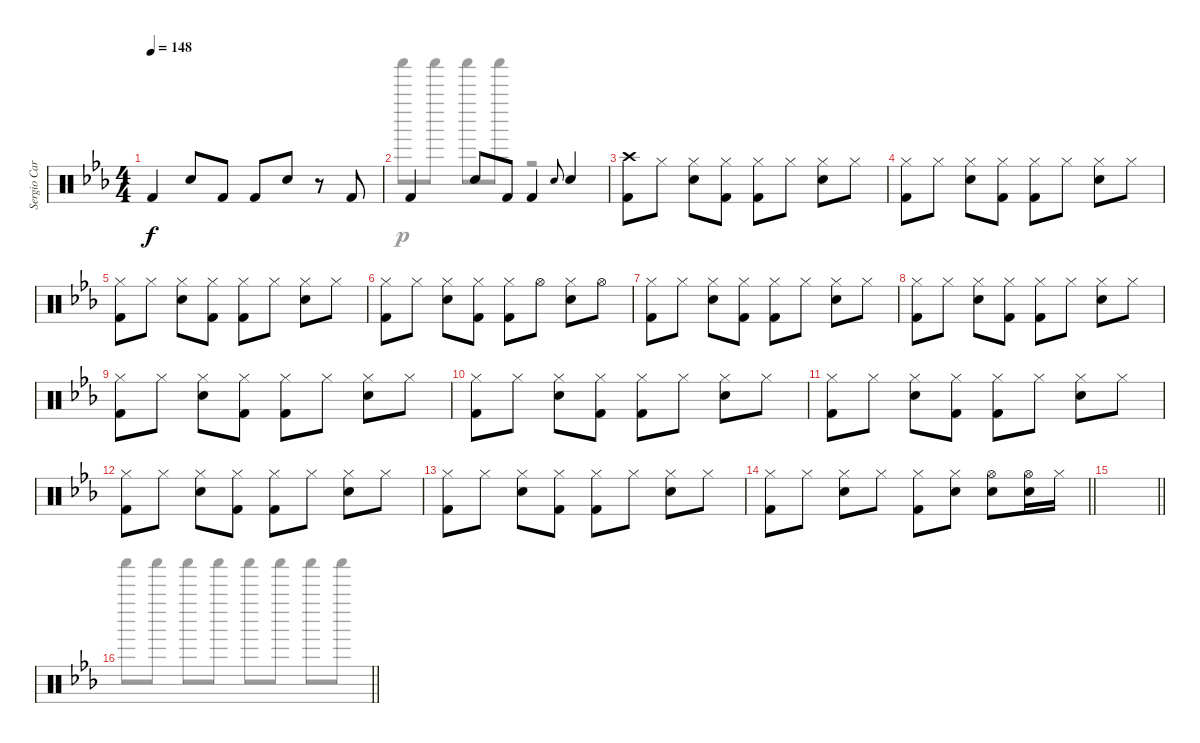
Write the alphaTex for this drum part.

\track ("Sergio Carnevale [Batteria]" "Sergio Car") {instrument percussion}
\staff {score}
\articulation defaults
\voice
\ts (4 4)
\tempo 148
\clef neutral
\ks cminor "Kick (hit) 2".4{dy f} "Snare (hit) 2".8 "Kick (hit) 2".8 "Kick (hit) 2".8 "Snare (hit) 2".8
r.8 "Kick (hit) 2".8 |
"Kick (hit) 2".4 "Snare (hit) 2".8 "Kick (hit) 2".8 "Kick (hit) 2".4 "Snare (hit) 2".8{gr onbeat} "Snare (hit) 2".4 |
("Crash high (hit)" "Kick (hit) 2").8 "Hi-Hat (closed)".8 ("Hi-Hat (closed)" "Snare (hit) 2").8 ("Hi-Hat (closed)" "Kick (hit) 2").8 ("Hi-Hat (closed)" "Kick (hit) 2").8 "Hi-Hat (closed)".8 ("Hi-Hat (closed)" "Snare (hit) 2").8 "Hi-Hat (closed)".8 |
("Hi-Hat (closed)" "Kick (hit) 2").8 "Hi-Hat (closed)".8 ("Hi-Hat (closed)" "Snare (hit) 2").8 ("Hi-Hat (closed)" "Kick (hit) 2").8 ("Hi-Hat (closed)" "Kick (hit) 2").8 "Hi-Hat (closed)".8 ("Hi-Hat (closed)" "Snare (hit) 2").8 "Hi-Hat (closed)".8 |
("Hi-Hat (closed)" "Kick (hit) 2").8 "Hi-Hat (closed)".8 ("Hi-Hat (closed)" "Snare (hit) 2").8 ("Hi-Hat (closed)" "Kick (hit) 2").8 ("Hi-Hat (closed)" "Kick (hit) 2").8 "Hi-Hat (closed)".8 ("Hi-Hat (closed)" "Snare (hit) 2").8 "Hi-Hat (closed)".8 |
("Hi-Hat (closed)" "Kick (hit) 2").8 "Hi-Hat (closed)".8 ("Hi-Hat (closed)" "Snare (hit) 2").8 ("Hi-Hat (closed)" "Kick (hit) 2").8 ("Hi-Hat (closed)" "Kick (hit) 2").8 "Hi-Hat (open)".8 ("Hi-Hat (closed)" "Snare (hit) 2").8 "Hi-Hat (open)".8 |
("Hi-Hat (closed)" "Kick (hit) 2").8 "Hi-Hat (closed)".8 ("Hi-Hat (closed)" "Snare (hit) 2").8 ("Hi-Hat (closed)" "Kick (hit) 2").8 ("Hi-Hat (closed)" "Kick (hit) 2").8 "Hi-Hat (closed)".8 ("Hi-Hat (closed)" "Snare (hit) 2").8 "Hi-Hat (closed)".8 |
("Hi-Hat (closed)" "Kick (hit) 2").8 "Hi-Hat (closed)".8 ("Hi-Hat (closed)" "Snare (hit) 2").8 ("Hi-Hat (closed)" "Kick (hit) 2").8 ("Hi-Hat (closed)" "Kick (hit) 2").8 "Hi-Hat (closed)".8 ("Hi-Hat (closed)" "Snare (hit) 2").8 "Hi-Hat (closed)".8 |
("Hi-Hat (closed)" "Kick (hit) 2").8 "Hi-Hat (closed)".8 ("Hi-Hat (closed)" "Snare (hit) 2").8 ("Hi-Hat (closed)" "Kick (hit) 2").8 ("Hi-Hat (closed)" "Kick (hit) 2").8 "Hi-Hat (closed)".8 ("Hi-Hat (closed)" "Snare (hit) 2").8 "Hi-Hat (closed)".8 |
("Hi-Hat (closed)" "Kick (hit) 2").8 "Hi-Hat (closed)".8 ("Hi-Hat (closed)" "Snare (hit) 2").8 ("Hi-Hat (closed)" "Kick (hit) 2").8 ("Hi-Hat (closed)" "Kick (hit) 2").8 "Hi-Hat (closed)".8 ("Hi-Hat (closed)" "Snare (hit) 2").8 "Hi-Hat (closed)".8 |
("Hi-Hat (closed)" "Kick (hit) 2").8 "Hi-Hat (closed)".8 ("Hi-Hat (closed)" "Snare (hit) 2").8 ("Hi-Hat (closed)" "Kick (hit) 2").8 ("Hi-Hat (closed)" "Kick (hit) 2").8 "Hi-Hat (closed)".8 ("Hi-Hat (closed)" "Snare (hit) 2").8 "Hi-Hat (closed)".8 |
("Hi-Hat (closed)" "Kick (hit) 2").8 "Hi-Hat (closed)".8 ("Hi-Hat (closed)" "Snare (hit) 2").8 ("Hi-Hat (closed)" "Kick (hit) 2").8 ("Hi-Hat (closed)" "Kick (hit) 2").8 "Hi-Hat (closed)".8 ("Hi-Hat (closed)" "Snare (hit) 2").8 "Hi-Hat (closed)".8 |
("Hi-Hat (closed)" "Kick (hit) 2").8 "Hi-Hat (closed)".8 ("Hi-Hat (closed)" "Snare (hit) 2").8 ("Hi-Hat (closed)" "Kick (hit) 2").8 ("Hi-Hat (closed)" "Kick (hit) 2").8 "Hi-Hat (closed)".8 ("Hi-Hat (closed)" "Snare (hit) 2").8 "Hi-Hat (closed)".8 |
\barLineRight lightlight
("Hi-Hat (closed)" "Kick (hit) 2").8 "Hi-Hat (closed)".8 ("Hi-Hat (closed)" "Snare (hit) 2").8 "Hi-Hat (closed)".8 ("Hi-Hat (closed)" "Kick (hit) 2").8 ("Hi-Hat (closed)" "Snare (hit) 2").8 ("Hi-Hat (open)" "Snare (hit) 2").8 ("Hi-Hat (open)" "Snare (hit) 2").16 "Hi-Hat (closed)".16 |
\barLineRight lightlight
|
\barLineRight lightlight
\voice
\clef neutral
\ottava regular
\simile none
\ks cminor "Shaker (hit)".8{dy p} "Shaker (hit)".8 "Shaker (hit)".8 "Shaker (hit)".8 "Shaker (hit)".8 "Shaker (hit)".8 "Shaker (hit)".8 "Shaker (hit)".8
|
"Shaker (hit)".8 "Shaker (hit)".8 "Shaker (hit)".8 "Shaker (hit)".8 r.2 |
|
|
|
|
|
|
|
|
|
|
|
\barLineRight lightlight
|
\barLineRight lightlight
|
\barLineRight lightlight
